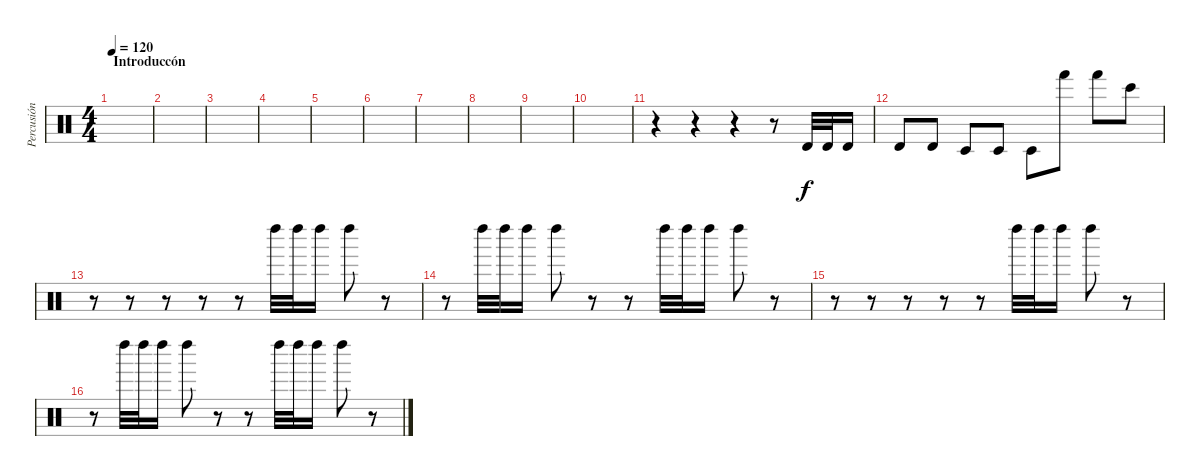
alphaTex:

\track ("Percusión" "Percusión") {instrument percussion}
\staff {score}
\articulation defaults
\ts (4 4)
\section ("" "Introduccón")
\tempo 120
\clef neutral
\ks c
|
|
|
|
|
|
|
|
|
|
r.4 r.4 r.4 r.8 "Timbale high (hit)".32 "Timbale high (hit)".32 "Timbale high (hit)".16 |
"Timbale high (hit)".8 "Timbale high (hit)".8 "Timbale low (hit)".8 "Timbale low (hit)".8 "Timbale low (hit)".8 "Hand (hit)".8 "Hand (hit)".8 "Bongo High (hit)".8 |
r.8 r.8 r.8 r.8 r.8 "Left Maraca (hit)".32 "Left Maraca (hit)".32 "Left Maraca (hit)".16 "Left Maraca (hit)".8 r.8 |
r.8 "Left Maraca (hit)".32 "Left Maraca (hit)".32 "Left Maraca (hit)".16 "Left Maraca (hit)".8 r.8 r.8 "Left Maraca (hit)".32 "Left Maraca (hit)".32 "Left Maraca (hit)".16 "Left Maraca (hit)".8 r.8 |
r.8 r.8 r.8 r.8 r.8 "Left Maraca (hit)".32 "Left Maraca (hit)".32 "Left Maraca (hit)".16 "Left Maraca (hit)".8 r.8 |
r.8 "Left Maraca (hit)".32 "Left Maraca (hit)".32 "Left Maraca (hit)".16 "Left Maraca (hit)".8 r.8 r.8 "Left Maraca (hit)".32 "Left Maraca (hit)".32 "Left Maraca (hit)".16 "Left Maraca (hit)".8 r.8
